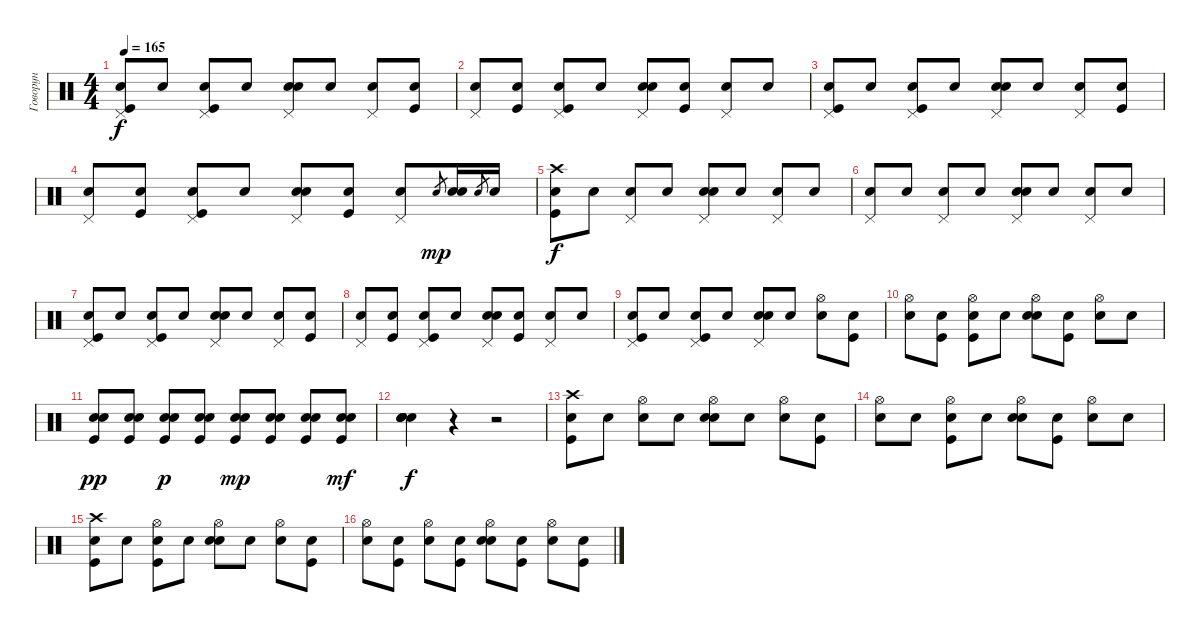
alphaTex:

\track ("Говорун" "Говорун") {instrument percussion}
\staff {score}
\articulation defaults
\ts (4 4)
\tempo 165
\clef neutral
\ks c
("Pedal Hi-Hat (hit)" "Kick (hit)" "Snare (hit)"{x}).8{dy f} "Snare (hit)"{x}.8 ("Pedal Hi-Hat (hit)" "Kick (hit)" "Snare (hit)"{x}).8 "Snare (hit)"{x}.8 ("Pedal Hi-Hat (hit)" "Snare (hit) 2" "Snare (hit)"{x}).8 "Snare (hit)"{x}.8 ("Pedal Hi-Hat (hit)" "Snare (hit)"{x}).8 ("Kick (hit)" "Snare (hit)"{x}).8 |
("Pedal Hi-Hat (hit)" "Snare (hit)"{x}).8 ("Kick (hit)" "Snare (hit)"{x}).8 ("Pedal Hi-Hat (hit)" "Kick (hit)" "Snare (hit)"{x}).8 "Snare (hit)"{x}.8 ("Pedal Hi-Hat (hit)" "Snare (hit) 2" "Snare (hit)"{x}).8 ("Kick (hit)" "Snare (hit)"{x}).8 ("Pedal Hi-Hat (hit)" "Snare (hit)"{x}).8 "Snare (hit)"{x}.8 |
("Pedal Hi-Hat (hit)" "Kick (hit)" "Snare (hit)"{x}).8 "Snare (hit)"{x}.8 ("Pedal Hi-Hat (hit)" "Kick (hit)" "Snare (hit)"{x}).8 "Snare (hit)"{x}.8 ("Pedal Hi-Hat (hit)" "Snare (hit) 2" "Snare (hit)"{x}).8 "Snare (hit)"{x}.8 ("Pedal Hi-Hat (hit)" "Snare (hit)"{x}).8 ("Kick (hit)" "Snare (hit)"{x}).8 |
("Pedal Hi-Hat (hit)" "Snare (hit)"{x}).8 ("Kick (hit)" "Snare (hit)"{x}).8 ("Pedal Hi-Hat (hit)" "Kick (hit)" "Snare (hit)"{x}).8 "Snare (hit)"{x}.8 ("Pedal Hi-Hat (hit)" "Snare (hit) 2" "Snare (hit)"{x}).8 ("Kick (hit)" "Snare (hit)"{x}).8 ("Pedal Hi-Hat (hit)" "Snare (hit)"{x}).8 "Snare (hit) 2".8{gr dy mp} ("Snare (hit) 2" "Snare (hit)"{x}).16 "Snare (hit) 2".8{gr} "Snare (hit) 2".16 |
("Crash high (hit)" "Kick (hit)" "Snare (hit)"{x}).8{dy f} "Snare (hit)"{x}.8 ("Pedal Hi-Hat (hit)" "Snare (hit)"{x}).8 "Snare (hit)"{x}.8 ("Pedal Hi-Hat (hit)" "Snare (hit) 2" "Snare (hit)"{x}).8 "Snare (hit)"{x}.8 ("Pedal Hi-Hat (hit)" "Snare (hit)"{x}).8 "Snare (hit)"{x}.8 |
("Pedal Hi-Hat (hit)" "Snare (hit)"{x}).8 "Snare (hit)"{x}.8 ("Pedal Hi-Hat (hit)" "Snare (hit)"{x}).8 "Snare (hit)"{x}.8 ("Pedal Hi-Hat (hit)" "Snare (hit) 2" "Snare (hit)"{x}).8 "Snare (hit)"{x}.8 ("Pedal Hi-Hat (hit)" "Snare (hit)"{x}).8 "Snare (hit)"{x}.8 |
("Pedal Hi-Hat (hit)" "Kick (hit)" "Snare (hit)"{x}).8 "Snare (hit)"{x}.8 ("Pedal Hi-Hat (hit)" "Kick (hit)" "Snare (hit)"{x}).8 "Snare (hit)"{x}.8 ("Pedal Hi-Hat (hit)" "Snare (hit) 2" "Snare (hit)"{x}).8 "Snare (hit)"{x}.8 ("Pedal Hi-Hat (hit)" "Snare (hit)"{x}).8 ("Kick (hit)" "Snare (hit)"{x}).8 |
("Pedal Hi-Hat (hit)" "Snare (hit)"{x}).8 ("Kick (hit)" "Snare (hit)"{x}).8 ("Pedal Hi-Hat (hit)" "Kick (hit)" "Snare (hit)"{x}).8 "Snare (hit)"{x}.8 ("Pedal Hi-Hat (hit)" "Snare (hit) 2" "Snare (hit)"{x}).8 ("Kick (hit)" "Snare (hit)"{x}).8 ("Pedal Hi-Hat (hit)" "Snare (hit)"{x}).8 "Snare (hit)"{x}.8 |
("Pedal Hi-Hat (hit)" "Kick (hit)" "Snare (hit)"{x}).8 "Snare (hit)"{x}.8 ("Pedal Hi-Hat (hit)" "Kick (hit)" "Snare (hit)"{x}).8 "Snare (hit)"{x}.8 ("Pedal Hi-Hat (hit)" "Snare (hit) 2" "Snare (hit)"{x}).8 "Snare (hit)"{x}.8 ("Hi-Hat (open)" "Snare (hit)"{x}).8 ("Kick (hit)" "Snare (hit)"{x}).8 |
("Hi-Hat (open)" "Snare (hit)"{x}).8 ("Kick (hit)" "Snare (hit)"{x}).8 ("Hi-Hat (open)" "Kick (hit)" "Snare (hit)"{x}).8 "Snare (hit)"{x}.8 ("Hi-Hat (open)" "Snare (hit) 2" "Snare (hit)"{x}).8 ("Kick (hit)" "Snare (hit)"{x}).8 ("Hi-Hat (open)" "Snare (hit)"{x}).8 "Snare (hit)"{x}.8 |
("Snare (hit) 2" "Kick (hit)" "Snare (hit)"{x}).8{dy pp} ("Snare (hit) 2" "Kick (hit)" "Snare (hit)"{x}).8 ("Snare (hit) 2" "Kick (hit)" "Snare (hit)"{x}).8{dy p} ("Snare (hit) 2" "Kick (hit)" "Snare (hit)"{x}).8 ("Snare (hit) 2" "Kick (hit)" "Snare (hit)"{x}).8{dy mp} ("Snare (hit) 2" "Kick (hit)" "Snare (hit)"{x}).8 ("Snare (hit) 2" "Kick (hit)" "Snare (hit)"{x}).8 ("Snare (hit) 2" "Kick (hit)" "Snare (hit)"{x}).8{dy mf} |
("Snare (hit) 2" "Snare (hit) 2" "Electric Snare (hit)" "Snare (hit)"{x}).4{dy f} r.4 r.2 |
\section ("" "")
("Crash high (hit)" "Kick (hit)" "Snare (hit)"{x}).8 "Snare (hit)"{x}.8 ("Hi-Hat (open)" "Snare (hit)"{x}).8 "Snare (hit)"{x}.8 ("Hi-Hat (open)" "Snare (hit) 2" "Snare (hit)"{x}).8 "Snare (hit)"{x}.8 ("Hi-Hat (open)" "Snare (hit)"{x}).8 ("Kick (hit)" "Snare (hit)"{x}).8 |
("Hi-Hat (open)" "Snare (hit)"{x}).8 "Snare (hit)"{x}.8 ("Hi-Hat (open)" "Kick (hit)" "Snare (hit)"{x}).8 "Snare (hit)"{x}.8 ("Hi-Hat (open)" "Snare (hit) 2" "Snare (hit)"{x}).8 ("Kick (hit)" "Snare (hit)"{x}).8 ("Hi-Hat (open)" "Snare (hit)"{x}).8 "Snare (hit)"{x}.8 |
("Crash high (hit)" "Kick (hit)" "Snare (hit)"{x}).8 "Snare (hit)"{x}.8 ("Hi-Hat (open)" "Kick (hit)" "Snare (hit)"{x}).8 "Snare (hit)"{x}.8 ("Hi-Hat (open)" "Snare (hit) 2" "Snare (hit)"{x}).8 "Snare (hit)"{x}.8 ("Hi-Hat (open)" "Snare (hit)"{x}).8 ("Kick (hit)" "Snare (hit)"{x}).8 |
("Hi-Hat (open)" "Snare (hit)"{x}).8 ("Kick (hit)" "Snare (hit)"{x}).8 ("Hi-Hat (open)" "Snare (hit)"{x}).8 ("Kick (hit)" "Snare (hit)"{x}).8 ("Hi-Hat (open)" "Snare (hit) 2" "Snare (hit)"{x}).8 ("Kick (hit)" "Snare (hit)"{x}).8 ("Hi-Hat (open)" "Snare (hit)"{x}).8 ("Kick (hit)" "Snare (hit)"{x}).8
